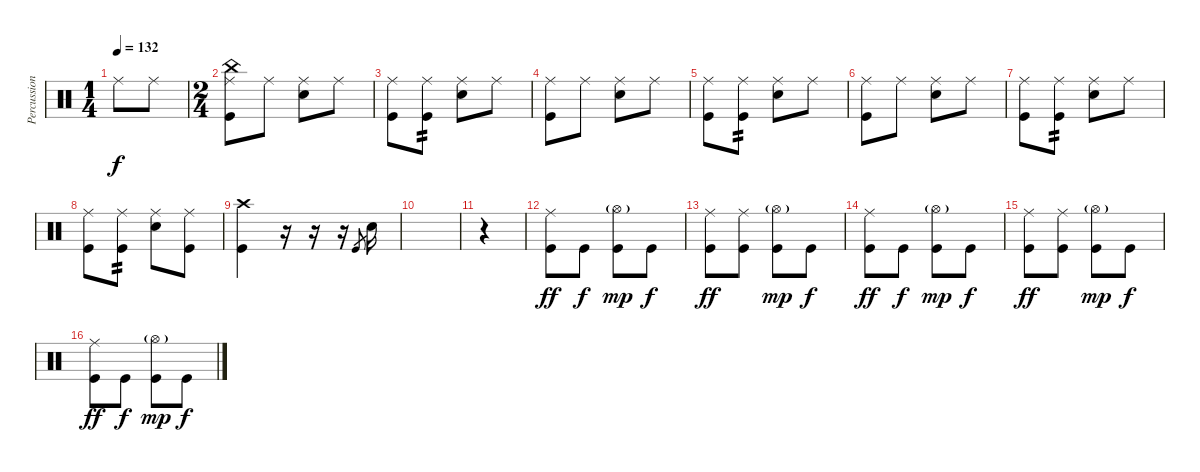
\track ("Percussion" "Percussion") {instrument percussion}
\staff {score}
\articulation defaults
\ts (1 4)
\tempo 132
\clef neutral
\ks c "Ride (middle)".8{dy f} "Ride (middle)".8
|
\ts (2 4)
("China (hit)" "Ride (middle)" "Kick (hit)").8 "Ride (middle)".8 ("Ride (middle)" "Electric Snare (hit)").8 "Ride (middle)".8 |
("Ride (middle)" "Kick (hit)").8 ("Ride (middle)" "Kick (hit)").8{tp 2} ("Ride (middle)" "Electric Snare (hit)").8 "Ride (middle)".8 |
("Ride (middle)" "Kick (hit)").8 "Ride (middle)".8 ("Ride (middle)" "Electric Snare (hit)").8 "Ride (middle)".8 |
("Ride (middle)" "Kick (hit)").8 ("Ride (middle)" "Kick (hit)").8{tp 2} ("Ride (middle)" "Electric Snare (hit)").8 "Ride (middle)".8 |
("Ride (middle)" "Kick (hit)").8 "Ride (middle)".8 ("Ride (middle)" "Electric Snare (hit)").8 "Ride (middle)".8 |
("Ride (middle)" "Kick (hit)").8 ("Ride (middle)" "Kick (hit)").8{tp 2} ("Ride (middle)" "Electric Snare (hit)").8 "Ride (middle)".8 |
("Ride (middle)" "Kick (hit)").8 ("Ride (middle)" "Kick (hit)").8{tp 2} ("Ride (middle)" "Electric Snare (hit)").8 ("Ride (middle)" "Kick (hit)").8 |
("Crash high (hit)" "Kick (hit)").4 r.16 r.16 r.16 "Kick (hit)".8{gr} "Electric Snare (hit)".16 |
|
r.4 |
("Ride (middle)" "Kick (hit)").8{dy ff} "Kick (hit)".8{dy f} ("Hi-Hat (open)"{g} "Kick (hit)").8{dy mp} "Kick (hit)".8{dy f} |
("Ride (middle)" "Kick (hit)").8{dy ff} ("Ride (middle)" "Kick (hit)").8 ("Hi-Hat (open)"{g} "Kick (hit)").8{dy mp} "Kick (hit)".8{dy f} |
("Ride (middle)" "Kick (hit)").8{dy ff} "Kick (hit)".8{dy f} ("Hi-Hat (open)"{g} "Kick (hit)").8{dy mp} "Kick (hit)".8{dy f} |
("Ride (middle)" "Kick (hit)").8{dy ff} ("Ride (middle)" "Kick (hit)").8 ("Hi-Hat (open)"{g} "Kick (hit)").8{dy mp} "Kick (hit)".8{dy f} |
("Ride (middle)" "Kick (hit)").8{dy ff} "Kick (hit)".8{dy f} ("Hi-Hat (open)"{g} "Kick (hit)").8{dy mp} "Kick (hit)".8{dy f}
